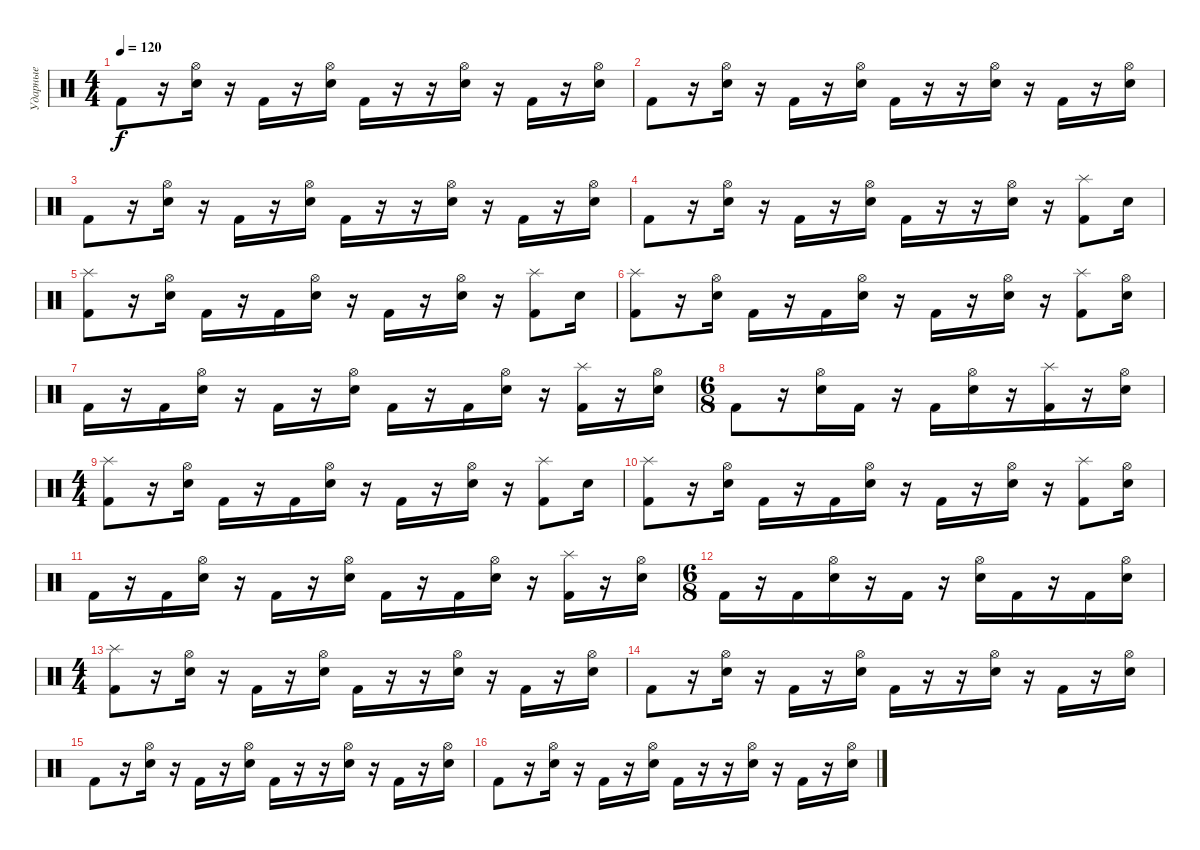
\track ("Ударные" "Ударные") {instrument percussion}
\staff {score}
\articulation defaults
\ts (4 4)
\tempo 120
\clef neutral
\ks c "Kick (hit) 2".8{dy f}
r.16 ("Hi-Hat (open)" "Electric Snare (hit)").16 r.16 "Kick (hit) 2".16 r.16 ("Hi-Hat (open)" "Electric Snare (hit)").16 "Kick (hit) 2".16 r.16 r.16 ("Hi-Hat (open)" "Electric Snare (hit)").16 r.16 "Kick (hit) 2".16 r.16 ("Hi-Hat (open)" "Electric Snare (hit)").16 |
"Kick (hit) 2".8 r.16 ("Hi-Hat (open)" "Electric Snare (hit)").16 r.16 "Kick (hit) 2".16 r.16 ("Hi-Hat (open)" "Electric Snare (hit)").16 "Kick (hit) 2".16 r.16 r.16 ("Hi-Hat (open)" "Electric Snare (hit)").16 r.16 "Kick (hit) 2".16 r.16 ("Hi-Hat (open)" "Electric Snare (hit)").16 |
"Kick (hit) 2".8 r.16 ("Hi-Hat (open)" "Electric Snare (hit)").16 r.16 "Kick (hit) 2".16 r.16 ("Hi-Hat (open)" "Electric Snare (hit)").16 "Kick (hit) 2".16 r.16 r.16 ("Hi-Hat (open)" "Electric Snare (hit)").16 r.16 "Kick (hit) 2".16 r.16 ("Hi-Hat (open)" "Electric Snare (hit)").16 |
"Kick (hit) 2".8 r.16 ("Hi-Hat (open)" "Electric Snare (hit)").16 r.16 "Kick (hit) 2".16 r.16 ("Hi-Hat (open)" "Electric Snare (hit)").16 "Kick (hit) 2".16 r.16 r.16 ("Hi-Hat (open)" "Electric Snare (hit)").16 r.16 ("Splash (hit)" "Kick (hit) 2").8 "Snare (hit) 2".16 |
("Splash (hit)" "Kick (hit) 2").8 r.16 ("Hi-Hat (open)" "Electric Snare (hit)").16 "Kick (hit) 2".16 r.16 "Kick (hit) 2".16 ("Hi-Hat (open)" "Electric Snare (hit)").16 r.16 "Kick (hit) 2".16 r.16 ("Hi-Hat (open)" "Electric Snare (hit)").16 r.16 ("Splash (hit)" "Kick (hit) 2").8 "Snare (hit) 2".16 |
("Splash (hit)" "Kick (hit) 2").8 r.16 ("Hi-Hat (open)" "Electric Snare (hit)").16 "Kick (hit) 2".16 r.16 "Kick (hit) 2".16 ("Hi-Hat (open)" "Electric Snare (hit)").16 r.16 "Kick (hit) 2".16 r.16 ("Hi-Hat (open)" "Electric Snare (hit)").16 r.16 ("Splash (hit)" "Kick (hit) 2").8 ("Hi-Hat (open)" "Electric Snare (hit)").16 |
"Kick (hit) 2".16 r.16 "Kick (hit) 2".16 ("Hi-Hat (open)" "Electric Snare (hit)").16 r.16 "Kick (hit) 2".16 r.16 ("Hi-Hat (open)" "Electric Snare (hit)").16 "Kick (hit) 2".16 r.16 "Kick (hit) 2".16 ("Hi-Hat (open)" "Electric Snare (hit)").16 r.16 ("Splash (hit)" "Kick (hit) 2").16 r.16 ("Hi-Hat (open)" "Electric Snare (hit)").16 |
\ts (6 8)
"Kick (hit) 2".8 r.16 ("Hi-Hat (open)" "Electric Snare (hit)").16 "Kick (hit) 2".16 r.16 "Kick (hit) 2".16 ("Hi-Hat (open)" "Electric Snare (hit)").16 r.16 ("Splash (hit)" "Kick (hit) 2").16 r.16 ("Hi-Hat (open)" "Electric Snare (hit)").16 |
\ts (4 4)
("Splash (hit)" "Kick (hit) 2").8 r.16 ("Hi-Hat (open)" "Electric Snare (hit)").16 "Kick (hit) 2".16 r.16 "Kick (hit) 2".16 ("Hi-Hat (open)" "Electric Snare (hit)").16 r.16 "Kick (hit) 2".16 r.16 ("Hi-Hat (open)" "Electric Snare (hit)").16 r.16 ("Splash (hit)" "Kick (hit) 2").8 "Snare (hit) 2".16 |
("Splash (hit)" "Kick (hit) 2").8 r.16 ("Hi-Hat (open)" "Electric Snare (hit)").16 "Kick (hit) 2".16 r.16 "Kick (hit) 2".16 ("Hi-Hat (open)" "Electric Snare (hit)").16 r.16 "Kick (hit) 2".16 r.16 ("Hi-Hat (open)" "Electric Snare (hit)").16 r.16 ("Splash (hit)" "Kick (hit) 2").8 ("Hi-Hat (open)" "Electric Snare (hit)").16 |
"Kick (hit) 2".16 r.16 "Kick (hit) 2".16 ("Hi-Hat (open)" "Electric Snare (hit)").16 r.16 "Kick (hit) 2".16 r.16 ("Hi-Hat (open)" "Electric Snare (hit)").16 "Kick (hit) 2".16 r.16 "Kick (hit) 2".16 ("Hi-Hat (open)" "Electric Snare (hit)").16 r.16 ("Splash (hit)" "Kick (hit) 2").16 r.16 ("Hi-Hat (open)" "Electric Snare (hit)").16 |
\ts (6 8)
"Kick (hit) 2".16 r.16 "Kick (hit) 2".16 ("Hi-Hat (open)" "Electric Snare (hit)").16 r.16 "Kick (hit) 2".16 r.16 ("Hi-Hat (open)" "Electric Snare (hit)").16 "Kick (hit) 2".16 r.16 "Kick (hit) 2".16 ("Hi-Hat (open)" "Electric Snare (hit)").16 |
\ts (4 4)
("Splash (hit)" "Kick (hit) 2").8 r.16 ("Hi-Hat (open)" "Electric Snare (hit)").16 r.16 "Kick (hit) 2".16 r.16 ("Hi-Hat (open)" "Electric Snare (hit)").16 "Kick (hit) 2".16 r.16 r.16 ("Hi-Hat (open)" "Electric Snare (hit)").16 r.16 "Kick (hit) 2".16 r.16 ("Hi-Hat (open)" "Electric Snare (hit)").16 |
"Kick (hit) 2".8 r.16 ("Hi-Hat (open)" "Electric Snare (hit)").16 r.16 "Kick (hit) 2".16 r.16 ("Hi-Hat (open)" "Electric Snare (hit)").16 "Kick (hit) 2".16 r.16 r.16 ("Hi-Hat (open)" "Electric Snare (hit)").16 r.16 "Kick (hit) 2".16 r.16 ("Hi-Hat (open)" "Electric Snare (hit)").16 |
"Kick (hit) 2".8 r.16 ("Hi-Hat (open)" "Electric Snare (hit)").16 r.16 "Kick (hit) 2".16 r.16 ("Hi-Hat (open)" "Electric Snare (hit)").16 "Kick (hit) 2".16 r.16 r.16 ("Hi-Hat (open)" "Electric Snare (hit)").16 r.16 "Kick (hit) 2".16 r.16 ("Hi-Hat (open)" "Electric Snare (hit)").16 |
"Kick (hit) 2".8 r.16 ("Hi-Hat (open)" "Electric Snare (hit)").16 r.16 "Kick (hit) 2".16 r.16 ("Hi-Hat (open)" "Electric Snare (hit)").16 "Kick (hit) 2".16 r.16 r.16 ("Hi-Hat (open)" "Electric Snare (hit)").16 r.16 "Kick (hit) 2".16 r.16 ("Hi-Hat (open)" "Electric Snare (hit)").16
